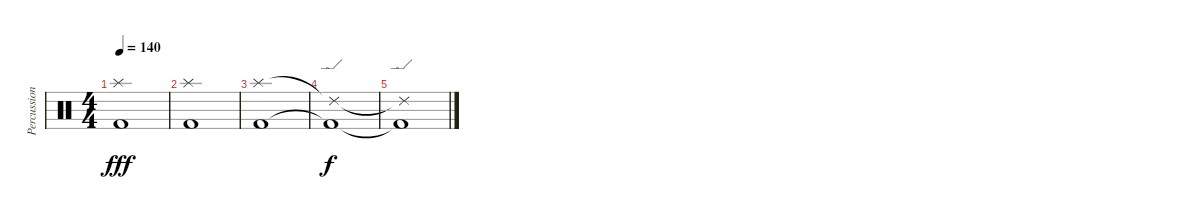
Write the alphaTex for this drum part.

\track ("Percussion" "Percussion") {instrument percussion}
\staff {score}
\articulation defaults
\ts (4 4)
\tempo 140
\clef neutral
\ks c
("Splash (hit)" "Kick (hit) 2").1{dy fff} |
("Splash (hit)" "Kick (hit) 2").1 |
("Splash (hit)" "Kick (hit) 2").1 |
("Ride (edge) 2"{t} "Kick (hit) 2"{t}).1{dy f} |
("Ride (edge) 2"{t} "Kick (hit) 2"{t}).1
